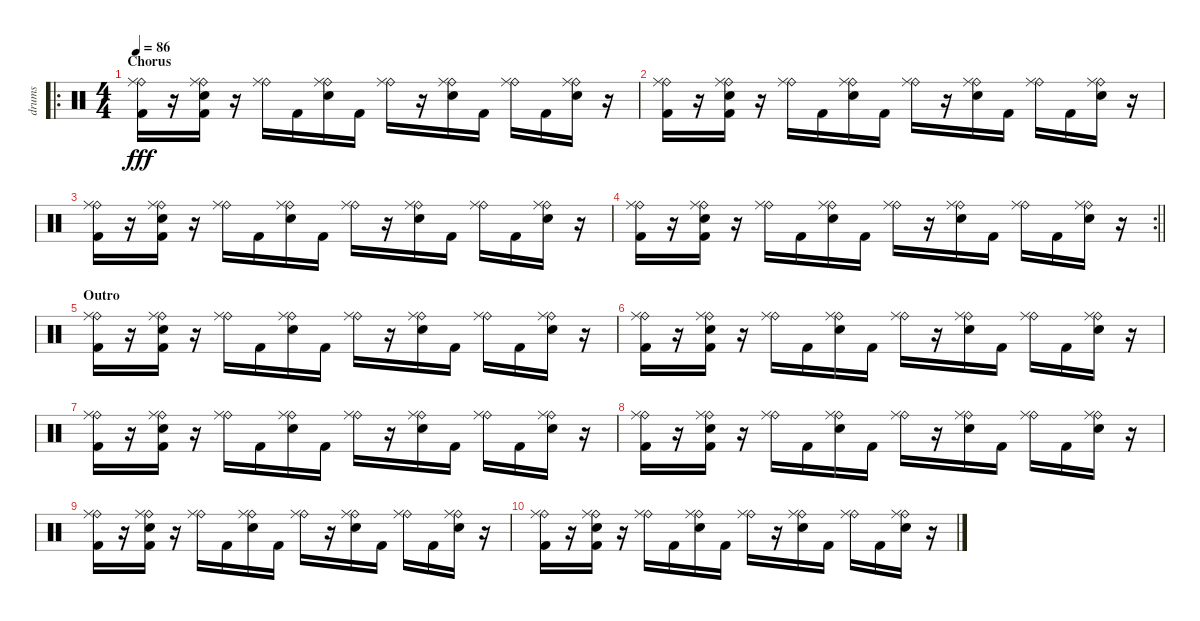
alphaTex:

\track ("drums" "drums") {instrument percussion}
\staff {score}
\articulation defaults
\ro
\ts (4 4)
\section ("" "Chorus")
\tempo 86
\clef neutral
\ks c
("Ride (bell)" "Ride (middle)" "Kick (hit) 2").16{dy fff} r.16 ("Ride (bell)" "Ride (middle)" "Electric Snare (hit)" "Kick (hit) 2").16 r.16 ("Ride (bell)" "Ride (middle)").16 "Kick (hit) 2".16 ("Ride (bell)" "Ride (middle)" "Electric Snare (hit)").16 "Kick (hit) 2".16 ("Ride (bell)" "Ride (middle)").16 r.16 ("Ride (bell)" "Ride (middle)" "Electric Snare (hit)").16 "Kick (hit) 2".16 ("Ride (bell)" "Ride (middle)").16 "Kick (hit) 2".16 ("Ride (bell)" "Ride (middle)" "Electric Snare (hit)").16 r.16 |
("Ride (bell)" "Ride (middle)" "Kick (hit) 2").16 r.16 ("Ride (bell)" "Ride (middle)" "Electric Snare (hit)" "Kick (hit) 2").16 r.16 ("Ride (bell)" "Ride (middle)").16 "Kick (hit) 2".16 ("Ride (bell)" "Ride (middle)" "Electric Snare (hit)").16 "Kick (hit) 2".16 ("Ride (bell)" "Ride (middle)").16 r.16 ("Ride (bell)" "Ride (middle)" "Electric Snare (hit)").16 "Kick (hit) 2".16 ("Ride (bell)" "Ride (middle)").16 "Kick (hit) 2".16 ("Ride (bell)" "Ride (middle)" "Electric Snare (hit)").16 r.16 |
("Ride (bell)" "Ride (middle)" "Kick (hit) 2").16 r.16 ("Ride (bell)" "Ride (middle)" "Electric Snare (hit)" "Kick (hit) 2").16 r.16 ("Ride (bell)" "Ride (middle)").16 "Kick (hit) 2".16 ("Ride (bell)" "Ride (middle)" "Electric Snare (hit)").16 "Kick (hit) 2".16 ("Ride (bell)" "Ride (middle)").16 r.16 ("Ride (bell)" "Ride (middle)" "Electric Snare (hit)").16 "Kick (hit) 2".16 ("Ride (bell)" "Ride (middle)").16 "Kick (hit) 2".16 ("Ride (bell)" "Ride (middle)" "Electric Snare (hit)").16 r.16 |
\rc 2
\barLineRight lightlight
("Ride (bell)" "Ride (middle)" "Kick (hit) 2").16 r.16 ("Ride (bell)" "Ride (middle)" "Electric Snare (hit)" "Kick (hit) 2").16 r.16 ("Ride (bell)" "Ride (middle)").16 "Kick (hit) 2".16 ("Ride (bell)" "Ride (middle)" "Electric Snare (hit)").16 "Kick (hit) 2".16 ("Ride (bell)" "Ride (middle)").16 r.16 ("Ride (bell)" "Ride (middle)" "Electric Snare (hit)").16 "Kick (hit) 2".16 ("Ride (bell)" "Ride (middle)").16 "Kick (hit) 2".16 ("Ride (bell)" "Ride (middle)" "Electric Snare (hit)").16 r.16 |
\section ("" "Outro")
("Ride (bell)" "Ride (middle)" "Kick (hit) 2").16 r.16 ("Ride (bell)" "Ride (middle)" "Electric Snare (hit)" "Kick (hit) 2").16 r.16 ("Ride (bell)" "Ride (middle)").16 "Kick (hit) 2".16 ("Ride (bell)" "Ride (middle)" "Electric Snare (hit)").16 "Kick (hit) 2".16 ("Ride (bell)" "Ride (middle)").16 r.16 ("Ride (bell)" "Ride (middle)" "Electric Snare (hit)").16 "Kick (hit) 2".16 ("Ride (bell)" "Ride (middle)").16 "Kick (hit) 2".16 ("Ride (bell)" "Ride (middle)" "Electric Snare (hit)").16 r.16 |
("Ride (bell)" "Ride (middle)" "Kick (hit) 2").16 r.16 ("Ride (bell)" "Ride (middle)" "Electric Snare (hit)" "Kick (hit) 2").16 r.16 ("Ride (bell)" "Ride (middle)").16 "Kick (hit) 2".16 ("Ride (bell)" "Ride (middle)" "Electric Snare (hit)").16 "Kick (hit) 2".16 ("Ride (bell)" "Ride (middle)").16 r.16 ("Ride (bell)" "Ride (middle)" "Electric Snare (hit)").16 "Kick (hit) 2".16 ("Ride (bell)" "Ride (middle)").16 "Kick (hit) 2".16 ("Ride (bell)" "Ride (middle)" "Electric Snare (hit)").16 r.16 |
("Ride (bell)" "Ride (middle)" "Kick (hit) 2").16 r.16 ("Ride (bell)" "Ride (middle)" "Electric Snare (hit)" "Kick (hit) 2").16 r.16 ("Ride (bell)" "Ride (middle)").16 "Kick (hit) 2".16 ("Ride (bell)" "Ride (middle)" "Electric Snare (hit)").16 "Kick (hit) 2".16 ("Ride (bell)" "Ride (middle)").16 r.16 ("Ride (bell)" "Ride (middle)" "Electric Snare (hit)").16 "Kick (hit) 2".16 ("Ride (bell)" "Ride (middle)").16 "Kick (hit) 2".16 ("Ride (bell)" "Ride (middle)" "Electric Snare (hit)").16 r.16 |
("Ride (bell)" "Ride (middle)" "Kick (hit) 2").16 r.16 ("Ride (bell)" "Ride (middle)" "Electric Snare (hit)" "Kick (hit) 2").16 r.16 ("Ride (bell)" "Ride (middle)").16 "Kick (hit) 2".16 ("Ride (bell)" "Ride (middle)" "Electric Snare (hit)").16 "Kick (hit) 2".16 ("Ride (bell)" "Ride (middle)").16 r.16 ("Ride (bell)" "Ride (middle)" "Electric Snare (hit)").16 "Kick (hit) 2".16 ("Ride (bell)" "Ride (middle)").16 "Kick (hit) 2".16 ("Ride (bell)" "Ride (middle)" "Electric Snare (hit)").16 r.16 |
("Ride (bell)" "Ride (middle)" "Kick (hit) 2").16 r.16 ("Ride (bell)" "Ride (middle)" "Electric Snare (hit)" "Kick (hit) 2").16 r.16 ("Ride (bell)" "Ride (middle)").16 "Kick (hit) 2".16 ("Ride (bell)" "Ride (middle)" "Electric Snare (hit)").16 "Kick (hit) 2".16 ("Ride (bell)" "Ride (middle)").16 r.16 ("Ride (bell)" "Ride (middle)" "Electric Snare (hit)").16 "Kick (hit) 2".16 ("Ride (bell)" "Ride (middle)").16 "Kick (hit) 2".16 ("Ride (bell)" "Ride (middle)" "Electric Snare (hit)").16 r.16 |
("Ride (bell)" "Ride (middle)" "Kick (hit) 2").16 r.16 ("Ride (bell)" "Ride (middle)" "Electric Snare (hit)" "Kick (hit) 2").16 r.16 ("Ride (bell)" "Ride (middle)").16 "Kick (hit) 2".16 ("Ride (bell)" "Ride (middle)" "Electric Snare (hit)").16 "Kick (hit) 2".16 ("Ride (bell)" "Ride (middle)").16 r.16 ("Ride (bell)" "Ride (middle)" "Electric Snare (hit)").16 "Kick (hit) 2".16 ("Ride (bell)" "Ride (middle)").16 "Kick (hit) 2".16 ("Ride (bell)" "Ride (middle)" "Electric Snare (hit)").16 r.16
